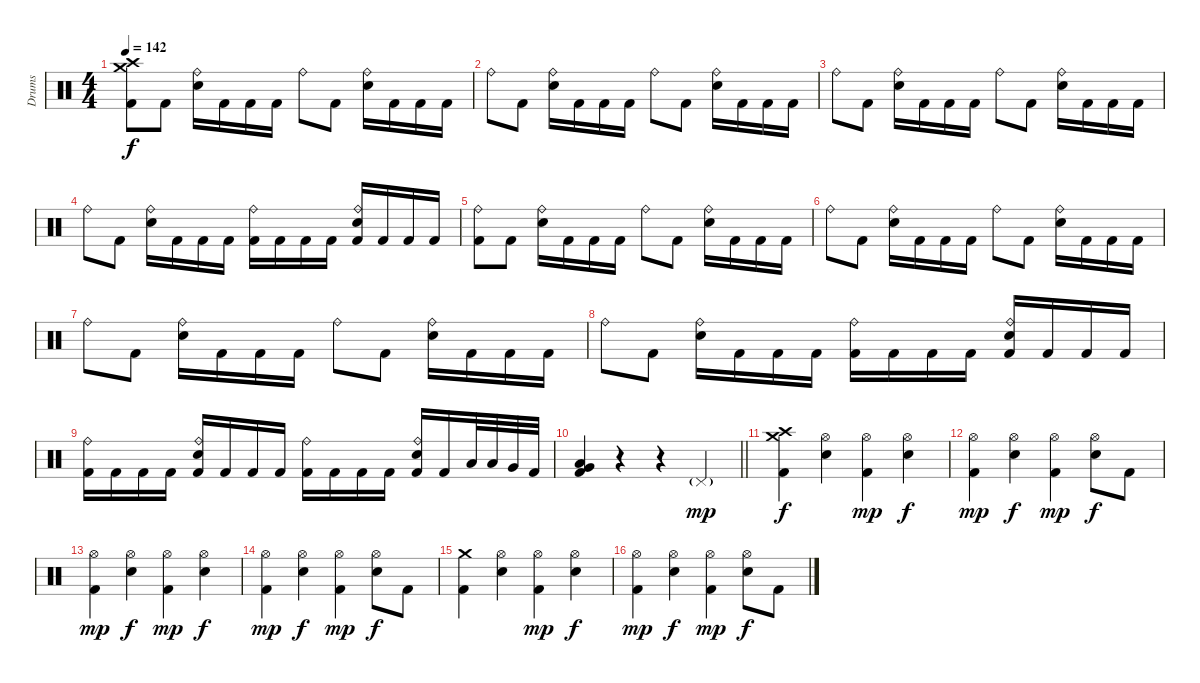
\track ("Drums" "Drums") {instrument percussion}
\staff {score}
\articulation defaults
\ts (4 4)
\tempo 142
\clef neutral
\ks c
("Crash high (hit)" "Crash medium (hit)" "Kick (hit) 2").8{dy f} "Kick (hit) 2".8 ("Ride (bell)" "Electric Snare (hit)").16 "Kick (hit) 2".16 "Kick (hit) 2".16 "Kick (hit) 2".16 "Ride (bell)".8 "Kick (hit) 2".8 ("Ride (bell)" "Electric Snare (hit)").16 "Kick (hit) 2".16 "Kick (hit) 2".16 "Kick (hit) 2".16 |
"Ride (bell)".8 "Kick (hit) 2".8 ("Ride (bell)" "Electric Snare (hit)").16 "Kick (hit) 2".16 "Kick (hit) 2".16 "Kick (hit) 2".16 "Ride (bell)".8 "Kick (hit) 2".8 ("Ride (bell)" "Electric Snare (hit)").16 "Kick (hit) 2".16 "Kick (hit) 2".16 "Kick (hit) 2".16 |
"Ride (bell)".8 "Kick (hit) 2".8 ("Ride (bell)" "Electric Snare (hit)").16 "Kick (hit) 2".16 "Kick (hit) 2".16 "Kick (hit) 2".16 "Ride (bell)".8 "Kick (hit) 2".8 ("Ride (bell)" "Electric Snare (hit)").16 "Kick (hit) 2".16 "Kick (hit) 2".16 "Kick (hit) 2".16 |
"Ride (bell)".8 "Kick (hit) 2".8 ("Ride (bell)" "Electric Snare (hit)").16 "Kick (hit) 2".16 "Kick (hit) 2".16 "Kick (hit) 2".16 ("Ride (bell)" "Kick (hit) 2").16 "Kick (hit) 2".16 "Kick (hit) 2".16 "Kick (hit) 2".16 ("Ride (bell)" "Electric Snare (hit)" "Kick (hit) 2").16 "Kick (hit) 2".16 "Kick (hit) 2".16 "Kick (hit) 2".16 |
("Ride (bell)" "Kick (hit) 2").8 "Kick (hit) 2".8 ("Ride (bell)" "Electric Snare (hit)").16 "Kick (hit) 2".16 "Kick (hit) 2".16 "Kick (hit) 2".16 "Ride (bell)".8 "Kick (hit) 2".8 ("Ride (bell)" "Electric Snare (hit)").16 "Kick (hit) 2".16 "Kick (hit) 2".16 "Kick (hit) 2".16 |
"Ride (bell)".8 "Kick (hit) 2".8 ("Ride (bell)" "Electric Snare (hit)").16 "Kick (hit) 2".16 "Kick (hit) 2".16 "Kick (hit) 2".16 "Ride (bell)".8 "Kick (hit) 2".8 ("Ride (bell)" "Electric Snare (hit)").16 "Kick (hit) 2".16 "Kick (hit) 2".16 "Kick (hit) 2".16 |
"Ride (bell)".8 "Kick (hit) 2".8 ("Ride (bell)" "Electric Snare (hit)").16 "Kick (hit) 2".16 "Kick (hit) 2".16 "Kick (hit) 2".16 "Ride (bell)".8 "Kick (hit) 2".8 ("Ride (bell)" "Electric Snare (hit)").16 "Kick (hit) 2".16 "Kick (hit) 2".16 "Kick (hit) 2".16 |
"Ride (bell)".8 "Kick (hit) 2".8 ("Ride (bell)" "Electric Snare (hit)").16 "Kick (hit) 2".16 "Kick (hit) 2".16 "Kick (hit) 2".16 ("Ride (bell)" "Kick (hit) 2").16 "Kick (hit) 2".16 "Kick (hit) 2".16 "Kick (hit) 2".16 ("Ride (bell)" "Electric Snare (hit)" "Kick (hit) 2").16 "Kick (hit) 2".16 "Kick (hit) 2".16 "Kick (hit) 2".16 |
("Ride (bell)" "Kick (hit) 2").16 "Kick (hit) 2".16 "Kick (hit) 2".16 "Kick (hit) 2".16 ("Ride (bell)" "Electric Snare (hit)" "Kick (hit) 2").16 "Kick (hit) 2".16 "Kick (hit) 2".16 "Kick (hit) 2".16 ("Ride (bell)" "Kick (hit) 2").16 "Kick (hit) 2".16 "Kick (hit) 2".16 "Kick (hit) 2".16 ("Ride (bell)" "Electric Snare (hit)" "Kick (hit) 2").16 "Kick (hit) 2".16 "Low Tom (hit)".32 "Low Tom (hit)".32 "Very Low Tom (hit)".32 "Kick (hit) 2".32 |
\barLineRight lightlight
("Low Tom (hit)" "Very Low Tom (hit)" "Kick (hit) 2").4 r.4 r.4 "Pedal Hi-Hat (hit)"{g}.4{dy mp} |
("Crash high (hit)" "Crash medium (hit)" "Kick (hit) 2").4{dy f} ("Hi-Hat (open)" "Electric Snare (hit)").4 ("Hi-Hat (open)" "Kick (hit) 2").4{dy mp} ("Hi-Hat (open)" "Electric Snare (hit)").4{dy f} |
("Hi-Hat (open)" "Kick (hit) 2").4{dy mp} ("Hi-Hat (open)" "Electric Snare (hit)").4{dy f} ("Hi-Hat (open)" "Kick (hit) 2").4{dy mp} ("Hi-Hat (open)" "Electric Snare (hit)").8{dy f} "Kick (hit) 2".8 |
("Hi-Hat (open)" "Kick (hit) 2").4{dy mp} ("Hi-Hat (open)" "Electric Snare (hit)").4{dy f} ("Hi-Hat (open)" "Kick (hit) 2").4{dy mp} ("Hi-Hat (open)" "Electric Snare (hit)").4{dy f} |
("Hi-Hat (open)" "Kick (hit) 2").4{dy mp} ("Hi-Hat (open)" "Electric Snare (hit)").4{dy f} ("Hi-Hat (open)" "Kick (hit) 2").4{dy mp} ("Hi-Hat (open)" "Electric Snare (hit)").8{dy f} "Kick (hit) 2".8 |
("Crash medium (hit)" "Kick (hit) 2").4 ("Hi-Hat (open)" "Electric Snare (hit)").4 ("Hi-Hat (open)" "Kick (hit) 2").4{dy mp} ("Hi-Hat (open)" "Electric Snare (hit)").4{dy f} |
("Hi-Hat (open)" "Kick (hit) 2").4{dy mp} ("Hi-Hat (open)" "Electric Snare (hit)").4{dy f} ("Hi-Hat (open)" "Kick (hit) 2").4{dy mp} ("Hi-Hat (open)" "Electric Snare (hit)").8{dy f} "Kick (hit) 2".8
